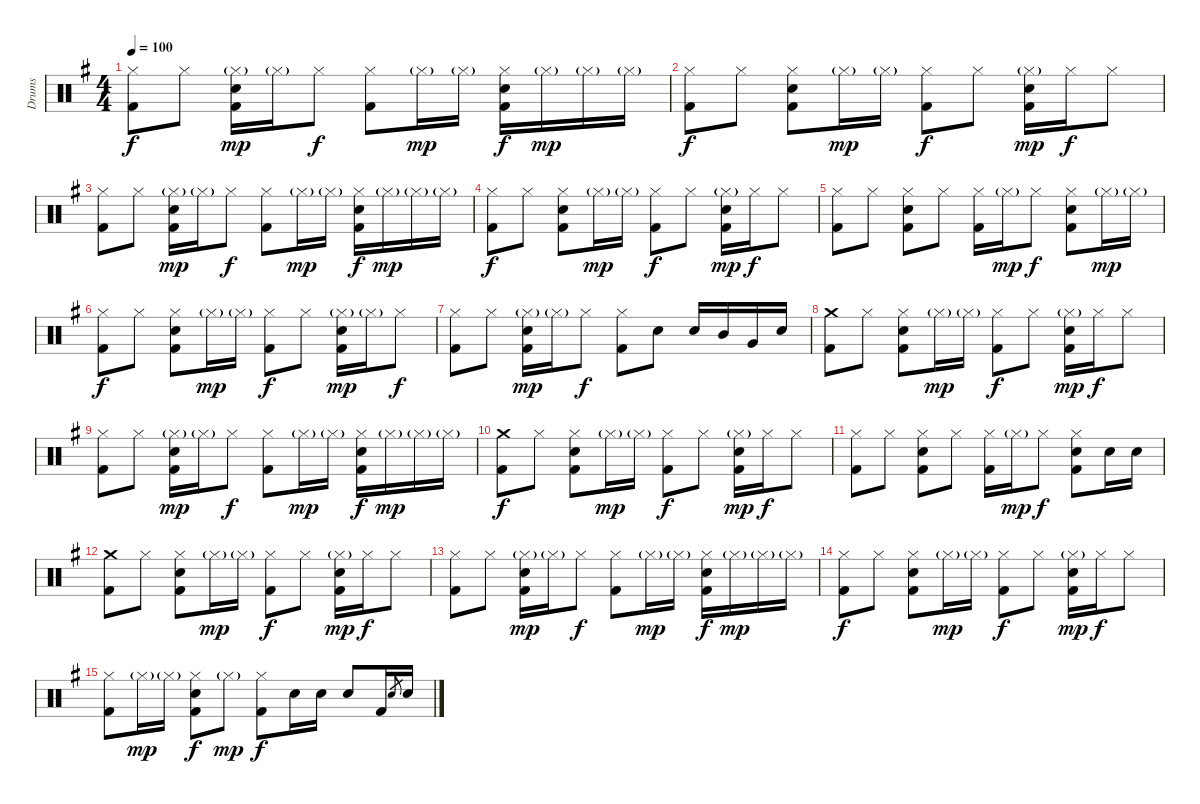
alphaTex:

\track ("Drums" "Drums") {instrument percussion}
\staff {score}
\articulation defaults
\ts (4 4)
\tempo 100
\clef neutral
\ks eminor
("Hi-Hat (closed)" "Kick (hit) 2").8{dy f} "Hi-Hat (closed)".8 ("Hi-Hat (closed)"{g} "Snare (hit) 2" "Kick (hit) 2").16{dy mp} "Hi-Hat (closed)"{g}.16 "Hi-Hat (closed)".8{dy f} ("Hi-Hat (closed)" "Kick (hit) 2").8 "Hi-Hat (closed)"{g}.16{dy mp} "Hi-Hat (closed)"{g}.16 ("Hi-Hat (closed)" "Snare (hit) 2" "Kick (hit) 2").16{dy f} "Hi-Hat (closed)"{g}.16{dy mp} "Hi-Hat (closed)"{g}.16 "Hi-Hat (closed)"{g}.16 |
("Hi-Hat (closed)" "Kick (hit) 2").8{dy f} "Hi-Hat (closed)".8 ("Hi-Hat (closed)" "Snare (hit) 2" "Kick (hit) 2").8 "Hi-Hat (closed)"{g}.16{dy mp} "Hi-Hat (closed)"{g}.16 ("Hi-Hat (closed)" "Kick (hit) 2").8{dy f} "Hi-Hat (closed)".8 ("Hi-Hat (closed)"{g} "Snare (hit) 2" "Kick (hit) 2").16{dy mp} "Hi-Hat (closed)".16{dy f} "Hi-Hat (closed)".8 |
("Hi-Hat (closed)" "Kick (hit) 2").8 "Hi-Hat (closed)".8 ("Hi-Hat (closed)"{g} "Snare (hit) 2" "Kick (hit) 2").16{dy mp} "Hi-Hat (closed)"{g}.16 "Hi-Hat (closed)".8{dy f} ("Hi-Hat (closed)" "Kick (hit) 2").8 "Hi-Hat (closed)"{g}.16{dy mp} "Hi-Hat (closed)"{g}.16 ("Hi-Hat (closed)" "Snare (hit) 2" "Kick (hit) 2").16{dy f} "Hi-Hat (closed)"{g}.16{dy mp} "Hi-Hat (closed)"{g}.16 "Hi-Hat (closed)"{g}.16 |
("Hi-Hat (closed)" "Kick (hit) 2").8{dy f} "Hi-Hat (closed)".8 ("Hi-Hat (closed)" "Snare (hit) 2" "Kick (hit) 2").8 "Hi-Hat (closed)"{g}.16{dy mp} "Hi-Hat (closed)"{g}.16 ("Hi-Hat (closed)" "Kick (hit) 2").8{dy f} "Hi-Hat (closed)".8 ("Hi-Hat (closed)"{g} "Snare (hit) 2" "Kick (hit) 2").16{dy mp} "Hi-Hat (closed)".16{dy f} "Hi-Hat (closed)".8 |
("Hi-Hat (closed)" "Kick (hit) 2").8 "Hi-Hat (closed)".8 ("Hi-Hat (closed)" "Snare (hit) 2" "Kick (hit) 2").8 "Hi-Hat (closed)".8 ("Hi-Hat (closed)" "Kick (hit) 2").16 "Hi-Hat (closed)"{g}.16{dy mp} "Hi-Hat (closed)".8{dy f} ("Hi-Hat (closed)" "Snare (hit) 2" "Kick (hit) 2").8 "Hi-Hat (closed)"{g}.16{dy mp} "Hi-Hat (closed)"{g}.16 |
("Hi-Hat (closed)" "Kick (hit) 2").8{dy f} "Hi-Hat (closed)".8 ("Hi-Hat (closed)" "Snare (hit) 2" "Kick (hit) 2").8 "Hi-Hat (closed)"{g}.16{dy mp} "Hi-Hat (closed)"{g}.16 ("Hi-Hat (closed)" "Kick (hit) 2").8{dy f} "Hi-Hat (closed)".8 ("Hi-Hat (closed)"{g} "Snare (hit) 2" "Kick (hit) 2").16{dy mp} "Hi-Hat (closed)"{g}.16 "Hi-Hat (closed)".8{dy f} |
("Hi-Hat (closed)" "Kick (hit) 2").8 "Hi-Hat (closed)".8 ("Hi-Hat (closed)"{g} "Snare (hit) 2" "Kick (hit) 2").16{dy mp} "Hi-Hat (closed)"{g}.16 "Hi-Hat (closed)".8{dy f} ("Hi-Hat (closed)" "Kick (hit) 2").8 "Snare (hit) 2".8 "Snare (hit) 2".16 "Mid Tom (hit)".16 "Very Low Tom (hit)".16 "Snare (hit) 2".16 |
("Crash medium (hit)" "Kick (hit) 2").8 "Hi-Hat (closed)".8 ("Hi-Hat (closed)" "Snare (hit) 2" "Kick (hit) 2").8 "Hi-Hat (closed)"{g}.16{dy mp} "Hi-Hat (closed)"{g}.16 ("Hi-Hat (closed)" "Kick (hit) 2").8{dy f} "Hi-Hat (closed)".8 ("Hi-Hat (closed)"{g} "Snare (hit) 2" "Kick (hit) 2").16{dy mp} "Hi-Hat (closed)".16{dy f} "Hi-Hat (closed)".8 |
("Hi-Hat (closed)" "Kick (hit) 2").8 "Hi-Hat (closed)".8 ("Hi-Hat (closed)"{g} "Snare (hit) 2" "Kick (hit) 2").16{dy mp} "Hi-Hat (closed)"{g}.16 "Hi-Hat (closed)".8{dy f} ("Hi-Hat (closed)" "Kick (hit) 2").8 "Hi-Hat (closed)"{g}.16{dy mp} "Hi-Hat (closed)"{g}.16 ("Hi-Hat (closed)" "Snare (hit) 2" "Kick (hit) 2").16{dy f} "Hi-Hat (closed)"{g}.16{dy mp} "Hi-Hat (closed)"{g}.16 "Hi-Hat (closed)"{g}.16 |
("Crash medium (hit)" "Kick (hit) 2").8{dy f} "Hi-Hat (closed)".8 ("Hi-Hat (closed)" "Snare (hit) 2" "Kick (hit) 2").8 "Hi-Hat (closed)"{g}.16{dy mp} "Hi-Hat (closed)"{g}.16 ("Hi-Hat (closed)" "Kick (hit) 2").8{dy f} "Hi-Hat (closed)".8 ("Hi-Hat (closed)"{g} "Snare (hit) 2" "Kick (hit) 2").16{dy mp} "Hi-Hat (closed)".16{dy f} "Hi-Hat (closed)".8 |
("Hi-Hat (closed)" "Kick (hit) 2").8 "Hi-Hat (closed)".8 ("Hi-Hat (closed)" "Snare (hit) 2" "Kick (hit) 2").8 "Hi-Hat (closed)".8 ("Hi-Hat (closed)" "Kick (hit) 2").16 "Hi-Hat (closed)"{g}.16{dy mp} "Hi-Hat (closed)".8{dy f} ("Hi-Hat (closed)" "Snare (hit) 2" "Kick (hit) 2").8 "Snare (hit) 2".16 "Snare (hit) 2".16 |
("Crash medium (hit)" "Kick (hit) 2").8 "Hi-Hat (closed)".8 ("Hi-Hat (closed)" "Snare (hit) 2" "Kick (hit) 2").8 "Hi-Hat (closed)"{g}.16{dy mp} "Hi-Hat (closed)"{g}.16 ("Hi-Hat (closed)" "Kick (hit) 2").8{dy f} "Hi-Hat (closed)".8 ("Hi-Hat (closed)"{g} "Snare (hit) 2" "Kick (hit) 2").16{dy mp} "Hi-Hat (closed)".16{dy f} "Hi-Hat (closed)".8 |
("Hi-Hat (closed)" "Kick (hit) 2").8 "Hi-Hat (closed)".8 ("Hi-Hat (closed)"{g} "Snare (hit) 2" "Kick (hit) 2").16{dy mp} "Hi-Hat (closed)"{g}.16 "Hi-Hat (closed)".8{dy f} ("Hi-Hat (closed)" "Kick (hit) 2").8 "Hi-Hat (closed)"{g}.16{dy mp} "Hi-Hat (closed)"{g}.16 ("Hi-Hat (closed)" "Snare (hit) 2" "Kick (hit) 2").16{dy f} "Hi-Hat (closed)"{g}.16{dy mp} "Hi-Hat (closed)"{g}.16 "Hi-Hat (closed)"{g}.16 |
("Hi-Hat (closed)" "Kick (hit) 2").8{dy f} "Hi-Hat (closed)".8 ("Hi-Hat (closed)" "Snare (hit) 2" "Kick (hit) 2").8 "Hi-Hat (closed)"{g}.16{dy mp} "Hi-Hat (closed)"{g}.16 ("Hi-Hat (closed)" "Kick (hit) 2").8{dy f} "Hi-Hat (closed)".8 ("Hi-Hat (closed)"{g} "Snare (hit) 2" "Kick (hit) 2").16{dy mp} "Hi-Hat (closed)".16{dy f} "Hi-Hat (closed)".8 |
("Hi-Hat (closed)" "Kick (hit) 2").8 "Hi-Hat (closed)"{g}.16{dy mp} "Hi-Hat (closed)"{g}.16 ("Hi-Hat (closed)" "Snare (hit) 2" "Kick (hit) 2").8{dy f} "Hi-Hat (closed)"{g}.8{dy mp} ("Hi-Hat (closed)" "Kick (hit) 2").8{dy f} "Snare (hit) 2".16 "Snare (hit) 2".16 "Snare (hit) 2".8 "Kick (hit) 2".16 "Snare (hit) 2".8{gr} "Snare (hit) 2".16
